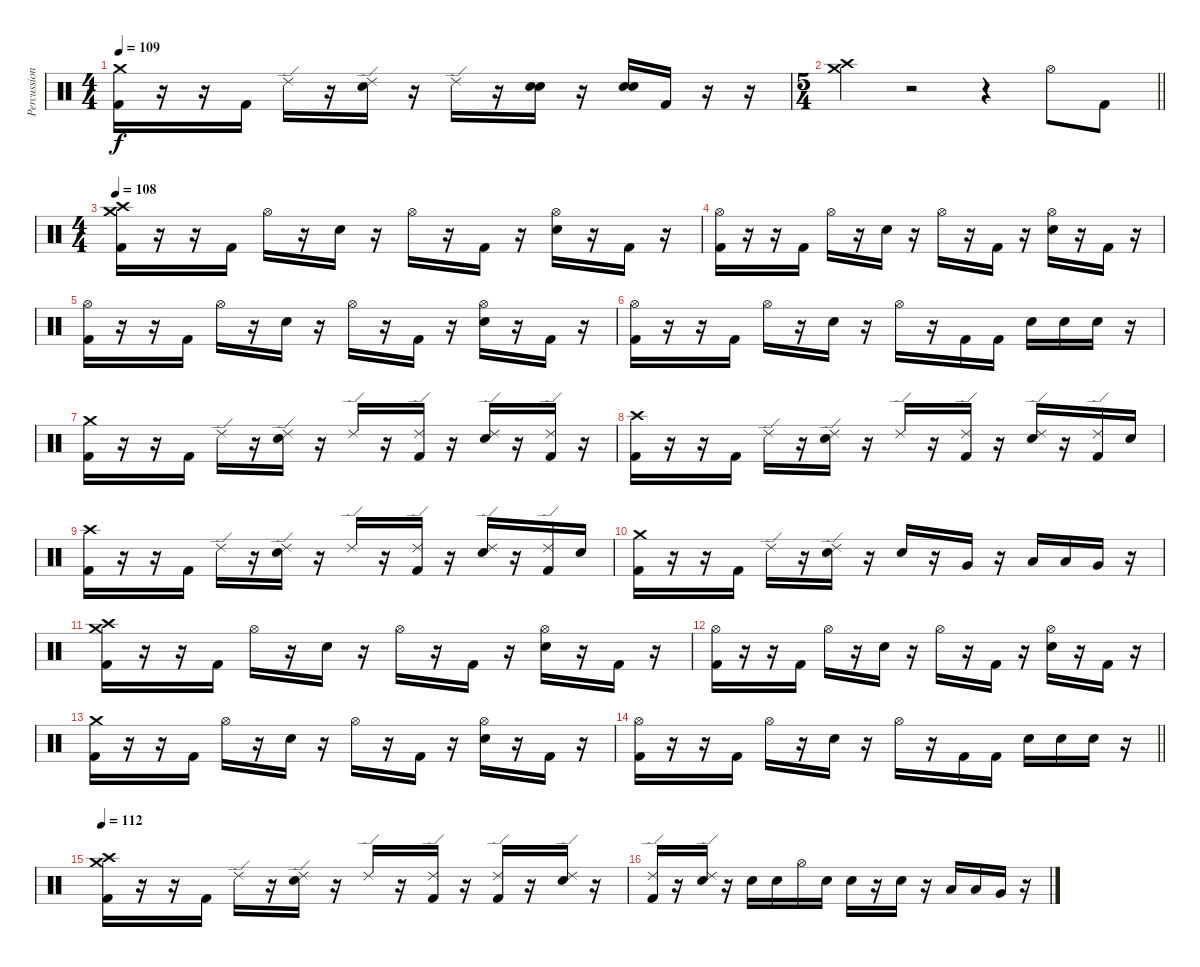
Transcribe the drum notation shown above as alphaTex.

\track ("Percussion" "Percussion") {instrument percussion}
\staff {score}
\articulation defaults
\ts (4 4)
\tempo 109
\clef neutral
\ks c
("Crash medium (hit)" "Kick (hit) 2").16{dy f} r.16 r.16 "Kick (hit) 2".16 "Ride (edge) 2".16 r.16 ("Ride (edge) 2" "Electric Snare (hit)").16 r.16 "Ride (edge) 2".16 r.16 ("Electric Snare (hit)" "Electric Snare (hit)").16 r.16 ("Electric Snare (hit)" "Electric Snare (hit)").16 "Kick (hit) 2".16 r.16 r.16 |
\ts (5 4)
\barLineRight lightlight
("Crash medium (hit)" "Crash high (hit)").4 r.2 r.4 "Hi-Hat (open)".8 "Kick (hit) 2".8 |
\ts (4 4)
\section ("" "")
\tempo 108
("Crash medium (hit)" "Crash high (hit)" "Kick (hit) 2").16 r.16 r.16 "Kick (hit) 2".16 "Hi-Hat (open)".16 r.16 "Electric Snare (hit)".16 r.16 "Hi-Hat (open)".16 r.16 "Kick (hit) 2".16 r.16 ("Hi-Hat (open)" "Electric Snare (hit)").16 r.16 "Kick (hit) 2".16 r.16 |
("Hi-Hat (open)" "Kick (hit) 2").16 r.16 r.16 "Kick (hit) 2".16 "Hi-Hat (open)".16 r.16 "Electric Snare (hit)".16 r.16 "Hi-Hat (open)".16 r.16 "Kick (hit) 2".16 r.16 ("Hi-Hat (open)" "Electric Snare (hit)").16 r.16 "Kick (hit) 2".16 r.16 |
("Hi-Hat (open)" "Kick (hit) 2").16 r.16 r.16 "Kick (hit) 2".16 "Hi-Hat (open)".16 r.16 "Electric Snare (hit)".16 r.16 "Hi-Hat (open)".16 r.16 "Kick (hit) 2".16 r.16 ("Hi-Hat (open)" "Electric Snare (hit)").16 r.16 "Kick (hit) 2".16 r.16 |
("Hi-Hat (open)" "Kick (hit) 2").16 r.16 r.16 "Kick (hit) 2".16 "Hi-Hat (open)".16 r.16 "Electric Snare (hit)".16 r.16 "Hi-Hat (open)".16 r.16 "Kick (hit) 2".16 "Kick (hit) 2".16 "Electric Snare (hit)".16 "Electric Snare (hit)".16 "Electric Snare (hit)".16 r.16 |
("Crash medium (hit)" "Kick (hit) 2").16 r.16 r.16 "Kick (hit) 2".16 "Ride (edge) 2".16 r.16 ("Ride (edge) 2" "Electric Snare (hit)").16 r.16 "Ride (edge) 2".16 r.16 ("Ride (edge) 2" "Kick (hit) 2").16 r.16 ("Ride (edge) 2" "Electric Snare (hit)").16 r.16 ("Ride (edge) 2" "Kick (hit) 2").16 r.16 |
("Crash high (hit)" "Kick (hit) 2").16 r.16 r.16 "Kick (hit) 2".16 "Ride (edge) 2".16 r.16 ("Ride (edge) 2" "Electric Snare (hit)").16 r.16 "Ride (edge) 2".16 r.16 ("Ride (edge) 2" "Kick (hit) 2").16 r.16 ("Ride (edge) 2" "Electric Snare (hit)").16 r.16 ("Ride (edge) 2" "Kick (hit) 2").16 "Electric Snare (hit)".16 |
("Crash high (hit)" "Kick (hit) 2").16 r.16 r.16 "Kick (hit) 2".16 "Ride (edge) 2".16 r.16 ("Ride (edge) 2" "Electric Snare (hit)").16 r.16 "Ride (edge) 2".16 r.16 ("Ride (edge) 2" "Kick (hit) 2").16 r.16 ("Ride (edge) 2" "Electric Snare (hit)").16 r.16 ("Ride (edge) 2" "Kick (hit) 2").16 "Electric Snare (hit)".16 |
("Crash medium (hit)" "Kick (hit) 2").16 r.16 r.16 "Kick (hit) 2".16 "Ride (edge) 2".16 r.16 ("Ride (edge) 2" "Electric Snare (hit)").16 r.16 "Electric Snare (hit)".16 r.16 "Very Low Tom (hit)".16 r.16 "Low Tom (hit)".16 "Low Tom (hit)".16 "Very Low Tom (hit)".16 r.16 |
("Crash medium (hit)" "Crash high (hit)" "Kick (hit) 2").16 r.16 r.16 "Kick (hit) 2".16 "Hi-Hat (open)".16 r.16 "Electric Snare (hit)".16 r.16 "Hi-Hat (open)".16 r.16 "Kick (hit) 2".16 r.16 ("Hi-Hat (open)" "Electric Snare (hit)").16 r.16 "Kick (hit) 2".16 r.16 |
("Hi-Hat (open)" "Kick (hit) 2").16 r.16 r.16 "Kick (hit) 2".16 "Hi-Hat (open)".16 r.16 "Electric Snare (hit)".16 r.16 "Hi-Hat (open)".16 r.16 "Kick (hit) 2".16 r.16 ("Hi-Hat (open)" "Electric Snare (hit)").16 r.16 "Kick (hit) 2".16 r.16 |
("Crash medium (hit)" "Kick (hit) 2").16 r.16 r.16 "Kick (hit) 2".16 "Hi-Hat (open)".16 r.16 "Electric Snare (hit)".16 r.16 "Hi-Hat (open)".16 r.16 "Kick (hit) 2".16 r.16 ("Hi-Hat (open)" "Electric Snare (hit)").16 r.16 "Kick (hit) 2".16 r.16 |
\barLineRight lightlight
("Hi-Hat (open)" "Kick (hit) 2").16 r.16 r.16 "Kick (hit) 2".16 "Hi-Hat (open)".16 r.16 "Electric Snare (hit)".16 r.16 "Hi-Hat (open)".16 r.16 "Kick (hit) 2".16 "Kick (hit) 2".16 "Electric Snare (hit)".16 "Electric Snare (hit)".16 "Electric Snare (hit)".16 r.16 |
\section ("" "")
\tempo 112
("Crash medium (hit)" "Crash high (hit)" "Kick (hit) 2").16 r.16 r.16 "Kick (hit) 2".16 "Ride (edge) 2".16 r.16 ("Ride (edge) 2" "Electric Snare (hit)").16 r.16 "Ride (edge) 2".16 r.16 ("Ride (edge) 2" "Kick (hit) 2").16 r.16 ("Ride (edge) 2" "Kick (hit) 2").16 r.16 ("Ride (edge) 2" "Electric Snare (hit)").16 r.16 |
("Ride (edge) 2" "Kick (hit) 2").16 r.16 ("Ride (edge) 2" "Electric Snare (hit)").16 r.16 "Electric Snare (hit)".16 "Electric Snare (hit)".16 "Hi-Hat (open)".16 "Electric Snare (hit)".16 "Electric Snare (hit)".16 r.16 "Electric Snare (hit)".16 r.16 "Low Tom (hit)".16 "Low Tom (hit)".16 "Very Low Tom (hit)".16 r.16
